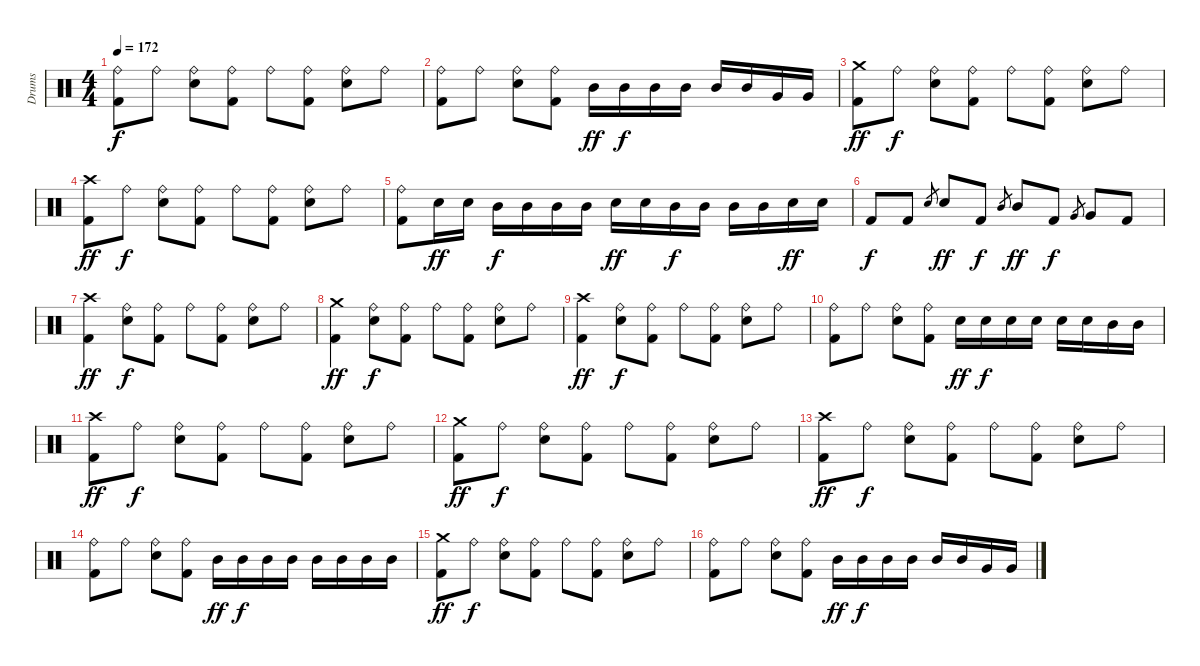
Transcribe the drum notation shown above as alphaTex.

\track ("Drums" "Drums") {instrument percussion}
\staff {score}
\articulation defaults
\ts (4 4)
\tempo 172
\clef neutral
\ks c
("Ride (bell)" "Kick (hit) 2").8{dy f} "Ride (bell)".8 ("Ride (bell)" "Electric Snare (hit)").8 ("Ride (bell)" "Kick (hit) 2").8 "Ride (bell)".8 ("Ride (bell)" "Kick (hit) 2").8 ("Ride (bell)" "Electric Snare (hit)").8 "Ride (bell)".8 |
("Ride (bell)" "Kick (hit) 2").8 "Ride (bell)".8 ("Ride (bell)" "Electric Snare (hit)").8 ("Ride (bell)" "Kick (hit) 2").8 "Mid Tom (hit)".16{dy ff} "Mid Tom (hit)".16{dy f} "Mid Tom (hit)".16 "Mid Tom (hit)".16 "Mid Tom (hit)".16 "Mid Tom (hit)".16 "Very Low Tom (hit)".16 "Very Low Tom (hit)".16 |
("Crash medium (hit)" "Kick (hit) 2").8{dy ff} "Ride (bell)".8{dy f} ("Ride (bell)" "Electric Snare (hit)").8 ("Ride (bell)" "Kick (hit) 2").8 "Ride (bell)".8 ("Ride (bell)" "Kick (hit) 2").8 ("Ride (bell)" "Electric Snare (hit)").8 "Ride (bell)".8 |
("Crash high (hit)" "Kick (hit) 2").8{dy ff} "Ride (bell)".8{dy f} ("Ride (bell)" "Electric Snare (hit)").8 ("Ride (bell)" "Kick (hit) 2").8 "Ride (bell)".8 ("Ride (bell)" "Kick (hit) 2").8 ("Ride (bell)" "Electric Snare (hit)").8 "Ride (bell)".8 |
("Ride (bell)" "Kick (hit) 2").8 "Electric Snare (hit)".16{dy ff} "Electric Snare (hit)".16 "Mid Tom (hit)".16{dy f} "Mid Tom (hit)".16 "Mid Tom (hit)".16 "Mid Tom (hit)".16 "Electric Snare (hit)".16{dy ff} "Electric Snare (hit)".16 "Mid Tom (hit)".16{dy f} "Mid Tom (hit)".16 "Mid Tom (hit)".16 "Mid Tom (hit)".16 "Electric Snare (hit)".16{dy ff} "Electric Snare (hit)".16 |
"Kick (hit) 2".8{dy f} "Kick (hit) 2".8 "Electric Snare (hit)".8{gr} "Electric Snare (hit)".8{dy ff} "Kick (hit) 2".8{dy f} "Mid Tom (hit)".8{gr} "Mid Tom (hit)".8{dy ff} "Kick (hit) 2".8{dy f} "Very Low Tom (hit)".8{gr} "Very Low Tom (hit)".8 "Kick (hit) 2".8 |
("Crash high (hit)" "Kick (hit) 2").4{dy ff} ("Ride (bell)" "Electric Snare (hit)").8{dy f} ("Ride (bell)" "Kick (hit) 2").8 "Ride (bell)".8 ("Ride (bell)" "Kick (hit) 2").8 ("Ride (bell)" "Electric Snare (hit)").8 "Ride (bell)".8 |
("Crash medium (hit)" "Kick (hit) 2").4{dy ff} ("Ride (bell)" "Electric Snare (hit)").8{dy f} ("Ride (bell)" "Kick (hit) 2").8 "Ride (bell)".8 ("Ride (bell)" "Kick (hit) 2").8 ("Ride (bell)" "Electric Snare (hit)").8 "Ride (bell)".8 |
("Crash high (hit)" "Kick (hit) 2").4{dy ff} ("Ride (bell)" "Electric Snare (hit)").8{dy f} ("Ride (bell)" "Kick (hit) 2").8 "Ride (bell)".8 ("Ride (bell)" "Kick (hit) 2").8 ("Ride (bell)" "Electric Snare (hit)").8 "Ride (bell)".8 |
("Ride (bell)" "Kick (hit) 2").8 "Ride (bell)".8 ("Ride (bell)" "Electric Snare (hit)").8 ("Ride (bell)" "Kick (hit) 2").8 "Electric Snare (hit)".16{dy ff} "Electric Snare (hit)".16{dy f} "Electric Snare (hit)".16 "Electric Snare (hit)".16 "Electric Snare (hit)".16 "Electric Snare (hit)".16 "Mid Tom (hit)".16 "Mid Tom (hit)".16 |
("Crash high (hit)" "Kick (hit) 2").8{dy ff} "Ride (bell)".8{dy f} ("Ride (bell)" "Electric Snare (hit)").8 ("Ride (bell)" "Kick (hit) 2").8 "Ride (bell)".8 ("Ride (bell)" "Kick (hit) 2").8 ("Ride (bell)" "Electric Snare (hit)").8 "Ride (bell)".8 |
("Crash medium (hit)" "Kick (hit) 2").8{dy ff} "Ride (bell)".8{dy f} ("Ride (bell)" "Electric Snare (hit)").8 ("Ride (bell)" "Kick (hit) 2").8 "Ride (bell)".8 ("Ride (bell)" "Kick (hit) 2").8 ("Ride (bell)" "Electric Snare (hit)").8 "Ride (bell)".8 |
("Crash high (hit)" "Kick (hit) 2").8{dy ff} "Ride (bell)".8{dy f} ("Ride (bell)" "Electric Snare (hit)").8 ("Ride (bell)" "Kick (hit) 2").8 "Ride (bell)".8 ("Ride (bell)" "Kick (hit) 2").8 ("Ride (bell)" "Electric Snare (hit)").8 "Ride (bell)".8 |
("Ride (bell)" "Kick (hit) 2").8 "Ride (bell)".8 ("Ride (bell)" "Electric Snare (hit)").8 ("Ride (bell)" "Kick (hit) 2").8 "Mid Tom (hit)".16{dy ff} "Mid Tom (hit)".16{dy f} "Mid Tom (hit)".16 "Mid Tom (hit)".16 "Mid Tom (hit)".16 "Mid Tom (hit)".16 "Mid Tom (hit)".16 "Mid Tom (hit)".16 |
("Crash medium (hit)" "Kick (hit) 2").8{dy ff} "Ride (bell)".8{dy f} ("Ride (bell)" "Electric Snare (hit)").8 ("Ride (bell)" "Kick (hit) 2").8 "Ride (bell)".8 ("Ride (bell)" "Kick (hit) 2").8 ("Ride (bell)" "Electric Snare (hit)").8 "Ride (bell)".8 |
("Ride (bell)" "Kick (hit) 2").8 "Ride (bell)".8 ("Ride (bell)" "Electric Snare (hit)").8 ("Ride (bell)" "Kick (hit) 2").8 "Mid Tom (hit)".16{dy ff} "Mid Tom (hit)".16{dy f} "Mid Tom (hit)".16 "Mid Tom (hit)".16 "Mid Tom (hit)".16 "Mid Tom (hit)".16 "Very Low Tom (hit)".16 "Very Low Tom (hit)".16
